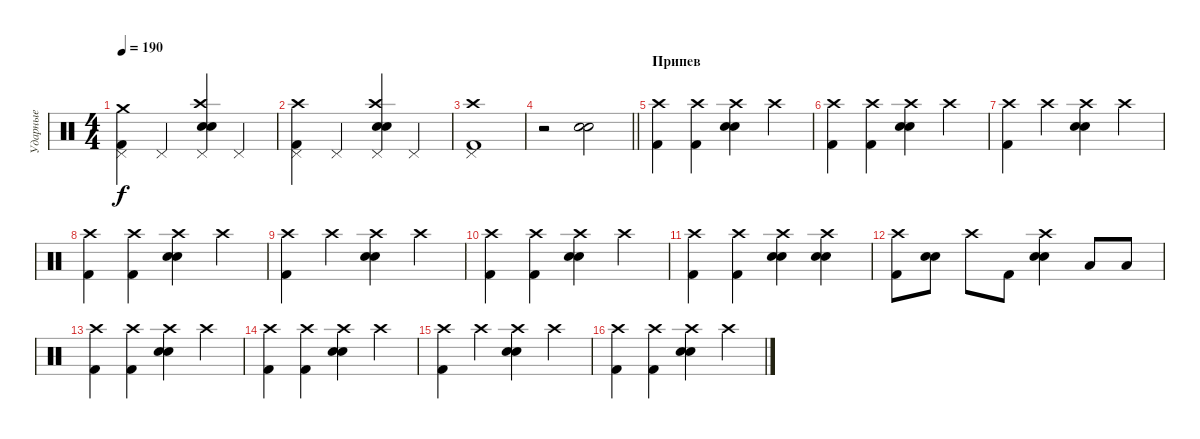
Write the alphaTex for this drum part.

\track ("Ударные" "Ударные") {instrument percussion}
\staff {score}
\articulation defaults
\ts (4 4)
\tempo 190
\clef neutral
\ks c
("Crash medium (hit)" "Pedal Hi-Hat (hit)" "Kick (hit) 2").4{dy f} "Pedal Hi-Hat (hit)".4 ("Crash high (hit)" "Pedal Hi-Hat (hit)" "Electric Snare (hit)" "Snare (hit) 2").4 "Pedal Hi-Hat (hit)".4 |
("Crash high (hit)" "Pedal Hi-Hat (hit)" "Kick (hit) 2").4 "Pedal Hi-Hat (hit)".4 ("Crash high (hit)" "Pedal Hi-Hat (hit)" "Electric Snare (hit)" "Snare (hit) 2").4 "Pedal Hi-Hat (hit)".4 |
("Crash high (hit)" "Pedal Hi-Hat (hit)" "Kick (hit) 2").1 |
\barLineRight lightlight
r.2 ("Electric Snare (hit)" "Snare (hit) 2").2 |
\section ("" "Припев")
("Crash high (hit)" "Kick (hit) 2").4 ("Crash high (hit)" "Kick (hit) 2").4 ("Crash high (hit)" "Electric Snare (hit)" "Snare (hit) 2").4 "Crash high (hit)".4 |
("Crash high (hit)" "Kick (hit) 2").4 ("Crash high (hit)" "Kick (hit) 2").4 ("Crash high (hit)" "Electric Snare (hit)" "Snare (hit) 2").4 "Crash high (hit)".4 |
("Crash high (hit)" "Kick (hit) 2").4 "Crash high (hit)".4 ("Crash high (hit)" "Electric Snare (hit)" "Snare (hit) 2").4 "Crash high (hit)".4 |
("Crash high (hit)" "Kick (hit) 2").4 ("Crash high (hit)" "Kick (hit) 2").4 ("Crash high (hit)" "Electric Snare (hit)" "Snare (hit) 2").4 "Crash high (hit)".4 |
("Crash high (hit)" "Kick (hit) 2").4 "Crash high (hit)".4 ("Crash high (hit)" "Electric Snare (hit)" "Snare (hit) 2").4 "Crash high (hit)".4 |
("Crash high (hit)" "Kick (hit) 2").4 ("Crash high (hit)" "Kick (hit) 2").4 ("Crash high (hit)" "Electric Snare (hit)" "Snare (hit) 2").4 "Crash high (hit)".4 |
("Crash high (hit)" "Kick (hit) 2").4 ("Crash high (hit)" "Kick (hit) 2").4 ("Crash high (hit)" "Electric Snare (hit)" "Snare (hit) 2").4 ("Crash high (hit)" "Electric Snare (hit)" "Snare (hit) 2").4 |
("Crash high (hit)" "Kick (hit) 2").8 ("Electric Snare (hit)" "Snare (hit) 2").8 "Crash high (hit)".8 "Kick (hit) 2".8 ("Crash high (hit)" "Electric Snare (hit)" "Snare (hit) 2").4 "Low Tom (hit)".8 "Low Tom (hit)".8 |
("Crash high (hit)" "Kick (hit) 2").4 ("Crash high (hit)" "Kick (hit) 2").4 ("Crash high (hit)" "Electric Snare (hit)" "Snare (hit) 2").4 "Crash high (hit)".4 |
("Crash high (hit)" "Kick (hit) 2").4 ("Crash high (hit)" "Kick (hit) 2").4 ("Crash high (hit)" "Electric Snare (hit)" "Snare (hit) 2").4 "Crash high (hit)".4 |
("Crash high (hit)" "Kick (hit) 2").4 "Crash high (hit)".4 ("Crash high (hit)" "Electric Snare (hit)" "Snare (hit) 2").4 "Crash high (hit)".4 |
("Crash high (hit)" "Kick (hit) 2").4 ("Crash high (hit)" "Kick (hit) 2").4 ("Crash high (hit)" "Electric Snare (hit)" "Snare (hit) 2").4 "Crash high (hit)".4
